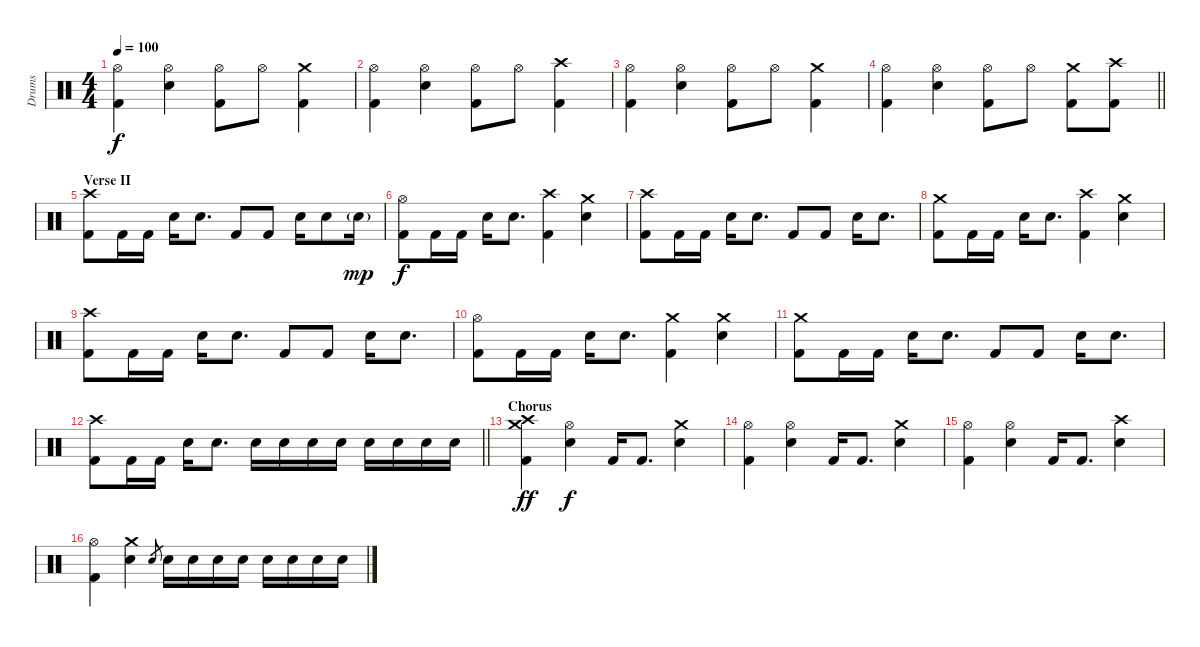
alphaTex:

\track ("Drums" "Drums") {instrument percussion}
\staff {score}
\articulation defaults
\ts (4 4)
\tempo 100
\clef neutral
\ks c
("Hi-Hat (open)" "Kick (hit) 2").4{dy f} ("Hi-Hat (open)" "Snare (hit) 2").4 ("Hi-Hat (open)" "Kick (hit) 2").8 "Hi-Hat (open)".8 ("Crash medium (hit)" "Kick (hit) 2").4 |
("Hi-Hat (open)" "Kick (hit) 2").4 ("Hi-Hat (open)" "Snare (hit) 2").4 ("Hi-Hat (open)" "Kick (hit) 2").8 "Hi-Hat (open)".8 ("Crash high (hit)" "Kick (hit) 2").4 |
("Hi-Hat (open)" "Kick (hit) 2").4 ("Hi-Hat (open)" "Snare (hit) 2").4 ("Hi-Hat (open)" "Kick (hit) 2").8 "Hi-Hat (open)".8 ("Crash medium (hit)" "Kick (hit) 2").4 |
\barLineRight lightlight
("Hi-Hat (open)" "Kick (hit) 2").4 ("Hi-Hat (open)" "Snare (hit) 2").4 ("Hi-Hat (open)" "Kick (hit) 2").8 "Hi-Hat (open)".8 ("Crash medium (hit)" "Kick (hit) 2").8 ("Crash high (hit)" "Kick (hit) 2").8 |
\section ("" "Verse II")
("Crash high (hit)" "Kick (hit) 2").8 "Kick (hit) 2".16 "Kick (hit) 2".16 "Snare (hit) 2".16 "Snare (hit) 2".8{d} "Kick (hit) 2".8 "Kick (hit) 2".8 "Snare (hit) 2".16 "Snare (hit) 2".8 "Electric Snare (hit)"{g}.16{dy mp} |
("Hi-Hat (open)" "Kick (hit) 2").8{dy f} "Kick (hit) 2".16 "Kick (hit) 2".16 "Snare (hit) 2".16 "Snare (hit) 2".8{d} ("Crash high (hit)" "Kick (hit) 2").4 ("Crash medium (hit)" "Snare (hit) 2").4 |
("Crash high (hit)" "Kick (hit) 2").8 "Kick (hit) 2".16 "Kick (hit) 2".16 "Snare (hit) 2".16 "Snare (hit) 2".8{d} "Kick (hit) 2".8 "Kick (hit) 2".8 "Snare (hit) 2".16 "Snare (hit) 2".8{d} |
("Crash medium (hit)" "Kick (hit) 2").8 "Kick (hit) 2".16 "Kick (hit) 2".16 "Snare (hit) 2".16 "Snare (hit) 2".8{d} ("Crash high (hit)" "Kick (hit) 2").4 ("Crash medium (hit)" "Snare (hit) 2").4 |
("Crash high (hit)" "Kick (hit) 2").8 "Kick (hit) 2".16 "Kick (hit) 2".16 "Snare (hit) 2".16 "Snare (hit) 2".8{d} "Kick (hit) 2".8 "Kick (hit) 2".8 "Snare (hit) 2".16 "Snare (hit) 2".8{d} |
("Hi-Hat (open)" "Kick (hit) 2").8 "Kick (hit) 2".16 "Kick (hit) 2".16 "Snare (hit) 2".16 "Snare (hit) 2".8{d} ("Crash medium (hit)" "Kick (hit) 2").4 ("Crash medium (hit)" "Snare (hit) 2").4 |
("Crash medium (hit)" "Kick (hit) 2").8 "Kick (hit) 2".16 "Kick (hit) 2".16 "Snare (hit) 2".16 "Snare (hit) 2".8{d} "Kick (hit) 2".8 "Kick (hit) 2".8 "Snare (hit) 2".16 "Snare (hit) 2".8{d} |
\barLineRight lightlight
("Crash high (hit)" "Kick (hit) 2").8 "Kick (hit) 2".16 "Kick (hit) 2".16 "Snare (hit) 2".16 "Snare (hit) 2".8{d} "Electric Snare (hit)".16 "Electric Snare (hit)".16 "Electric Snare (hit)".16 "Electric Snare (hit)".16 "Electric Snare (hit)".16 "Electric Snare (hit)".16 "Electric Snare (hit)".16 "Electric Snare (hit)".16 |
\section ("" "Chorus")
("Crash high (hit)" "Crash medium (hit)" "Kick (hit) 2").4{dy ff} ("Hi-Hat (open)" "Snare (hit) 2").4{dy f} "Kick (hit) 2".16 "Kick (hit) 2".8{d} ("Crash medium (hit)" "Snare (hit) 2").4 |
("Hi-Hat (open)" "Kick (hit) 2").4 ("Hi-Hat (open)" "Snare (hit) 2").4 "Kick (hit) 2".16 "Kick (hit) 2".8{d} ("Crash medium (hit)" "Snare (hit) 2").4 |
("Hi-Hat (open)" "Kick (hit) 2").4 ("Hi-Hat (open)" "Snare (hit) 2").4 "Kick (hit) 2".16 "Kick (hit) 2".8{d} ("Crash high (hit)" "Snare (hit) 2").4 |
("Hi-Hat (open)" "Kick (hit) 2").4 ("Crash medium (hit)" "Snare (hit) 2").4 "Electric Snare (hit)".8{gr} "Electric Snare (hit)".16 "Electric Snare (hit)".16 "Electric Snare (hit)".16 "Electric Snare (hit)".16 "Electric Snare (hit)".16 "Electric Snare (hit)".16 "Electric Snare (hit)".16 "Electric Snare (hit)".16
